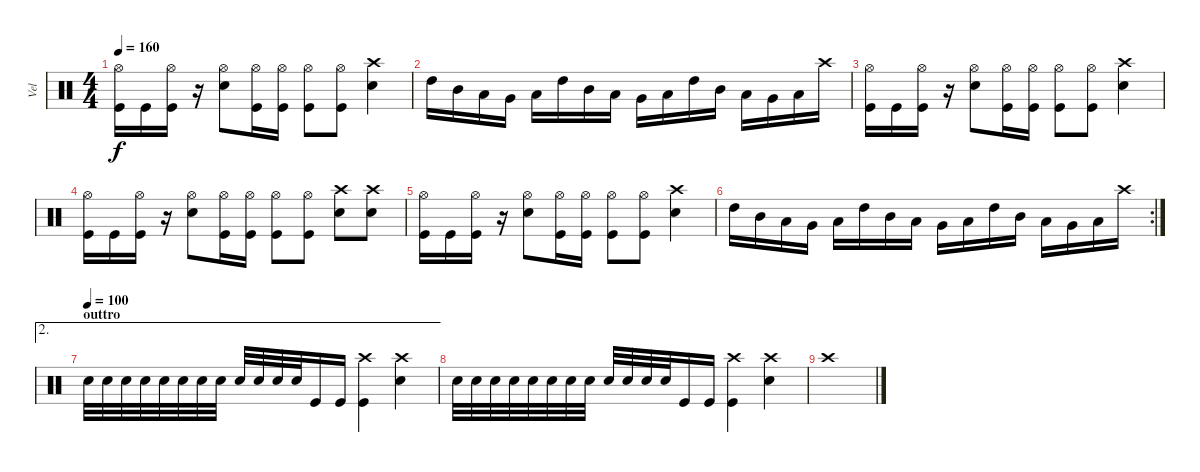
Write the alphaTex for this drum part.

\track ("Vel" "Vel") {instrument percussion}
\staff {score}
\articulation defaults
\ts (4 4)
\tempo 160
\clef neutral
\ks c
("Hi-Hat (open)" "Kick (hit)").16{dy f} "Kick (hit)".16 ("Hi-Hat (open)" "Kick (hit)").16 r.16 ("Hi-Hat (open)" "Electric Snare (hit)").8 ("Hi-Hat (open)" "Kick (hit)").16 ("Hi-Hat (open)" "Kick (hit)").16 ("Hi-Hat (open)" "Kick (hit)").8 ("Hi-Hat (open)" "Kick (hit)").8 ("Crash high (hit)" "Electric Snare (hit)").4 |
"High Tom (hit)".16 "Mid Tom (hit)".16 "Low Tom (hit)".16 "Very Low Tom (hit)".16 "Low Floor Tom (hit)".16 "High Tom (hit)".16 "Mid Tom (hit)".16 "Low Tom (hit)".16 "Very Low Tom (hit)".16 "Low Floor Tom (hit)".16 "High Tom (hit)".16 "Mid Tom (hit)".16 "Low Tom (hit)".16 "Very Low Tom (hit)".16 "Low Floor Tom (hit)".16 "Crash high (hit)".16 |
("Hi-Hat (open)" "Kick (hit)").16 "Kick (hit)".16 ("Hi-Hat (open)" "Kick (hit)").16 r.16 ("Hi-Hat (open)" "Electric Snare (hit)").8 ("Hi-Hat (open)" "Kick (hit)").16 ("Hi-Hat (open)" "Kick (hit)").16 ("Hi-Hat (open)" "Kick (hit)").8 ("Hi-Hat (open)" "Kick (hit)").8 ("Crash high (hit)" "Electric Snare (hit)").4 |
("Hi-Hat (open)" "Kick (hit)").16 "Kick (hit)".16 ("Hi-Hat (open)" "Kick (hit)").16 r.16 ("Hi-Hat (open)" "Electric Snare (hit)").8 ("Hi-Hat (open)" "Kick (hit)").16 ("Hi-Hat (open)" "Kick (hit)").16 ("Hi-Hat (open)" "Kick (hit)").8 ("Hi-Hat (open)" "Kick (hit)").8 ("Crash high (hit)" "Electric Snare (hit)").8 ("Crash high (hit)" "Electric Snare (hit)").8 |
("Hi-Hat (open)" "Kick (hit)").16 "Kick (hit)".16 ("Hi-Hat (open)" "Kick (hit)").16 r.16 ("Hi-Hat (open)" "Electric Snare (hit)").8 ("Hi-Hat (open)" "Kick (hit)").16 ("Hi-Hat (open)" "Kick (hit)").16 ("Hi-Hat (open)" "Kick (hit)").8 ("Hi-Hat (open)" "Kick (hit)").8 ("Crash high (hit)" "Electric Snare (hit)").4 |
\rc 2 "High Tom (hit)".16 "Mid Tom (hit)".16 "Low Tom (hit)".16 "Very Low Tom (hit)".16 "Low Floor Tom (hit)".16 "High Tom (hit)".16 "Mid Tom (hit)".16 "Low Tom (hit)".16 "Very Low Tom (hit)".16 "Low Floor Tom (hit)".16 "High Tom (hit)".16 "Mid Tom (hit)".16 "Low Tom (hit)".16 "Very Low Tom (hit)".16 "Low Floor Tom (hit)".16 "Crash high (hit)".16
|
\ae 2
\section ("" "outtro")
\tempo (100)
"Electric Snare (hit)".32 "Electric Snare (hit)".32 "Electric Snare (hit)".32 "Electric Snare (hit)".32 "Electric Snare (hit)".32 "Electric Snare (hit)".32 "Electric Snare (hit)".32 "Electric Snare (hit)".32 "Electric Snare (hit)".32 "Electric Snare (hit)".32 "Electric Snare (hit)".32 "Electric Snare (hit)".32 "Kick (hit)".16 "Kick (hit)".16 ("Crash high (hit)" "Kick (hit)").4 ("Crash high (hit)" "Electric Snare (hit)").4 |
"Electric Snare (hit)".32 "Electric Snare (hit)".32 "Electric Snare (hit)".32 "Electric Snare (hit)".32 "Electric Snare (hit)".32 "Electric Snare (hit)".32 "Electric Snare (hit)".32 "Electric Snare (hit)".32 "Electric Snare (hit)".32 "Electric Snare (hit)".32 "Electric Snare (hit)".32 "Electric Snare (hit)".32 "Kick (hit)".16 "Kick (hit)".16 ("Crash high (hit)" "Kick (hit)").4 ("Crash high (hit)" "Electric Snare (hit)").4 |
"Crash high (hit)".1
